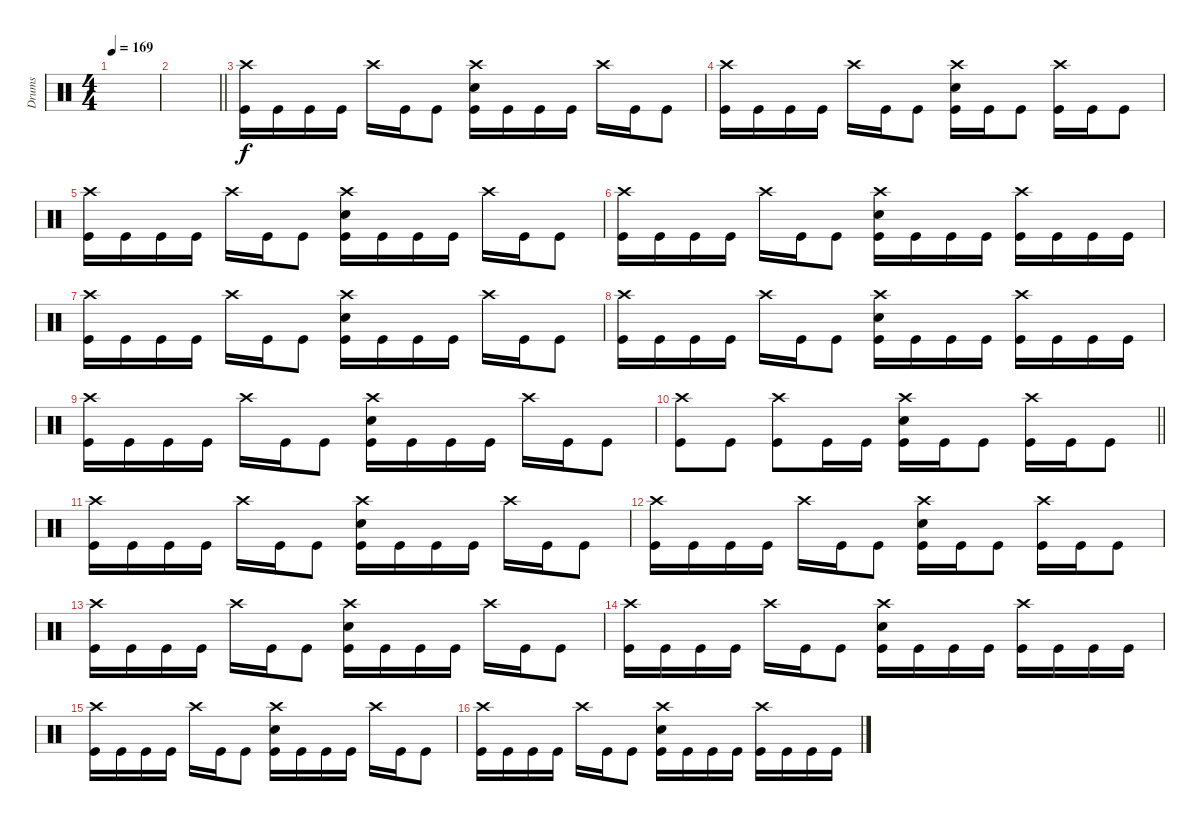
\track ("Drums" "Drums") {instrument percussion}
\staff
\articulation defaults
\ts (4 4)
\tempo 169
\clef neutral
\ks c
|
\barLineRight lightlight
|
\section ("" "")
("Crash high (hit)" "Kick (hit)").16 "Kick (hit)".16 "Kick (hit)".16 "Kick (hit)".16 "Crash high (hit)".16 "Kick (hit)".16 "Kick (hit)".8 ("Crash high (hit)" "Electric Snare (hit)" "Kick (hit)").16 "Kick (hit)".16 "Kick (hit)".16 "Kick (hit)".16 "Crash high (hit)".16 "Kick (hit)".16 "Kick (hit)".8 |
("Crash high (hit)" "Kick (hit)").16 "Kick (hit)".16 "Kick (hit)".16 "Kick (hit)".16 "Crash high (hit)".16 "Kick (hit)".16 "Kick (hit)".8 ("Crash high (hit)" "Electric Snare (hit)" "Kick (hit)").16 "Kick (hit)".16 "Kick (hit)".8 ("Crash high (hit)" "Kick (hit)").16 "Kick (hit)".16 "Kick (hit)".8 |
("Crash high (hit)" "Kick (hit)").16 "Kick (hit)".16 "Kick (hit)".16 "Kick (hit)".16 "Crash high (hit)".16 "Kick (hit)".16 "Kick (hit)".8 ("Crash high (hit)" "Electric Snare (hit)" "Kick (hit)").16 "Kick (hit)".16 "Kick (hit)".16 "Kick (hit)".16 "Crash high (hit)".16 "Kick (hit)".16 "Kick (hit)".8 |
("Crash high (hit)" "Kick (hit)").16 "Kick (hit)".16 "Kick (hit)".16 "Kick (hit)".16 "Crash high (hit)".16 "Kick (hit)".16 "Kick (hit)".8 ("Crash high (hit)" "Electric Snare (hit)" "Kick (hit)").16 "Kick (hit)".16 "Kick (hit)".16 "Kick (hit)".16 ("Crash high (hit)" "Kick (hit)").16 "Kick (hit)".16 "Kick (hit)".16 "Kick (hit)".16 |
("Crash high (hit)" "Kick (hit)").16 "Kick (hit)".16 "Kick (hit)".16 "Kick (hit)".16 "Crash high (hit)".16 "Kick (hit)".16 "Kick (hit)".8 ("Crash high (hit)" "Electric Snare (hit)" "Kick (hit)").16 "Kick (hit)".16 "Kick (hit)".16 "Kick (hit)".16 "Crash high (hit)".16 "Kick (hit)".16 "Kick (hit)".8 |
("Crash high (hit)" "Kick (hit)").16 "Kick (hit)".16 "Kick (hit)".16 "Kick (hit)".16 "Crash high (hit)".16 "Kick (hit)".16 "Kick (hit)".8 ("Crash high (hit)" "Electric Snare (hit)" "Kick (hit)").16 "Kick (hit)".16 "Kick (hit)".16 "Kick (hit)".16 ("Crash high (hit)" "Kick (hit)").16 "Kick (hit)".16 "Kick (hit)".16 "Kick (hit)".16 |
("Crash high (hit)" "Kick (hit)").16 "Kick (hit)".16 "Kick (hit)".16 "Kick (hit)".16 "Crash high (hit)".16 "Kick (hit)".16 "Kick (hit)".8 ("Crash high (hit)" "Electric Snare (hit)" "Kick (hit)").16 "Kick (hit)".16 "Kick (hit)".16 "Kick (hit)".16 "Crash high (hit)".16 "Kick (hit)".16 "Kick (hit)".8 |
\barLineRight lightlight
("Crash high (hit)" "Kick (hit)").8 "Kick (hit)".8 ("Crash high (hit)" "Kick (hit)").8 "Kick (hit)".16 "Kick (hit)".16 ("Crash high (hit)" "Electric Snare (hit)" "Kick (hit)").16 "Kick (hit)".16 "Kick (hit)".8 ("Crash high (hit)" "Kick (hit)").16 "Kick (hit)".16 "Kick (hit)".8 |
("Crash high (hit)" "Kick (hit)").16 "Kick (hit)".16 "Kick (hit)".16 "Kick (hit)".16 "Crash high (hit)".16 "Kick (hit)".16 "Kick (hit)".8 ("Crash high (hit)" "Electric Snare (hit)" "Kick (hit)").16 "Kick (hit)".16 "Kick (hit)".16 "Kick (hit)".16 "Crash high (hit)".16 "Kick (hit)".16 "Kick (hit)".8 |
("Crash high (hit)" "Kick (hit)").16 "Kick (hit)".16 "Kick (hit)".16 "Kick (hit)".16 "Crash high (hit)".16 "Kick (hit)".16 "Kick (hit)".8 ("Crash high (hit)" "Electric Snare (hit)" "Kick (hit)").16 "Kick (hit)".16 "Kick (hit)".8 ("Crash high (hit)" "Kick (hit)").16 "Kick (hit)".16 "Kick (hit)".8 |
("Crash high (hit)" "Kick (hit)").16 "Kick (hit)".16 "Kick (hit)".16 "Kick (hit)".16 "Crash high (hit)".16 "Kick (hit)".16 "Kick (hit)".8 ("Crash high (hit)" "Electric Snare (hit)" "Kick (hit)").16 "Kick (hit)".16 "Kick (hit)".16 "Kick (hit)".16 "Crash high (hit)".16 "Kick (hit)".16 "Kick (hit)".8 |
("Crash high (hit)" "Kick (hit)").16 "Kick (hit)".16 "Kick (hit)".16 "Kick (hit)".16 "Crash high (hit)".16 "Kick (hit)".16 "Kick (hit)".8 ("Crash high (hit)" "Electric Snare (hit)" "Kick (hit)").16 "Kick (hit)".16 "Kick (hit)".16 "Kick (hit)".16 ("Crash high (hit)" "Kick (hit)").16 "Kick (hit)".16 "Kick (hit)".16 "Kick (hit)".16 |
("Crash high (hit)" "Kick (hit)").16 "Kick (hit)".16 "Kick (hit)".16 "Kick (hit)".16 "Crash high (hit)".16 "Kick (hit)".16 "Kick (hit)".8 ("Crash high (hit)" "Electric Snare (hit)" "Kick (hit)").16 "Kick (hit)".16 "Kick (hit)".16 "Kick (hit)".16 "Crash high (hit)".16 "Kick (hit)".16 "Kick (hit)".8 |
("Crash high (hit)" "Kick (hit)").16 "Kick (hit)".16 "Kick (hit)".16 "Kick (hit)".16 "Crash high (hit)".16 "Kick (hit)".16 "Kick (hit)".8 ("Crash high (hit)" "Electric Snare (hit)" "Kick (hit)").16 "Kick (hit)".16 "Kick (hit)".16 "Kick (hit)".16 ("Crash high (hit)" "Kick (hit)").16 "Kick (hit)".16 "Kick (hit)".16 "Kick (hit)".16
